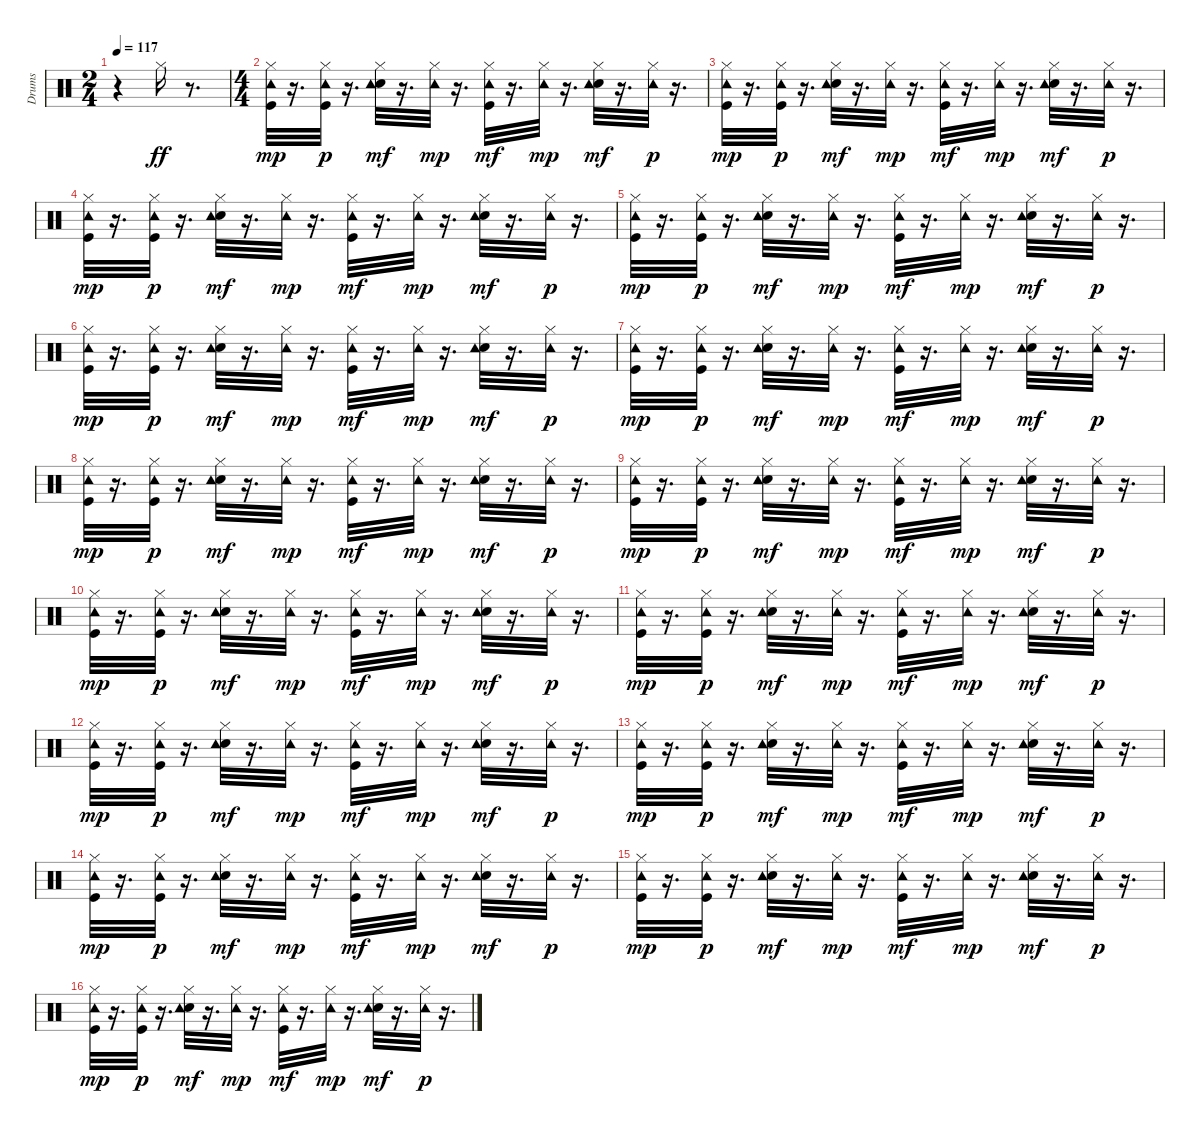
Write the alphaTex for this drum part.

\track ("Drums" "Drums") {instrument percussion}
\staff {score}
\articulation defaults
\ts (2 4)
\tempo 117
\clef neutral
\ks c
r.4{dy ff} "Hi-Hat (closed)".16 r.8{d} |
\ts (4 4)
("Kick (hit)" "Hi-Hat (closed)" "Tambourine (hit)").32{dy mp} r.16{d} ("Kick (hit)" "Hi-Hat (closed)" "Tambourine (hit)").32{dy p} r.16{d} ("Electric Snare (hit)" "Hi-Hat (closed)" "Tambourine (hit)").32{dy mf} r.16{d} ("Hi-Hat (closed)" "Tambourine (hit)").32{dy mp} r.16{d} ("Kick (hit)" "Hi-Hat (closed)" "Tambourine (hit)").32{dy mf} r.16{d} ("Hi-Hat (closed)" "Tambourine (hit)").32{dy mp} r.16{d} ("Electric Snare (hit)" "Hi-Hat (closed)" "Tambourine (hit)").32{dy mf} r.16{d} ("Hi-Hat (closed)" "Tambourine (hit)").32{dy p} r.16{d} |
("Kick (hit)" "Hi-Hat (closed)" "Tambourine (hit)").32{dy mp} r.16{d} ("Kick (hit)" "Hi-Hat (closed)" "Tambourine (hit)").32{dy p} r.16{d} ("Electric Snare (hit)" "Hi-Hat (closed)" "Tambourine (hit)").32{dy mf} r.16{d} ("Hi-Hat (closed)" "Tambourine (hit)").32{dy mp} r.16{d} ("Kick (hit)" "Hi-Hat (closed)" "Tambourine (hit)").32{dy mf} r.16{d} ("Hi-Hat (closed)" "Tambourine (hit)").32{dy mp} r.16{d} ("Electric Snare (hit)" "Hi-Hat (closed)" "Tambourine (hit)").32{dy mf} r.16{d} ("Hi-Hat (closed)" "Tambourine (hit)").32{dy p} r.16{d} |
("Kick (hit)" "Hi-Hat (closed)" "Tambourine (hit)").32{dy mp} r.16{d} ("Kick (hit)" "Hi-Hat (closed)" "Tambourine (hit)").32{dy p} r.16{d} ("Electric Snare (hit)" "Hi-Hat (closed)" "Tambourine (hit)").32{dy mf} r.16{d} ("Hi-Hat (closed)" "Tambourine (hit)").32{dy mp} r.16{d} ("Kick (hit)" "Hi-Hat (closed)" "Tambourine (hit)").32{dy mf} r.16{d} ("Hi-Hat (closed)" "Tambourine (hit)").32{dy mp} r.16{d} ("Electric Snare (hit)" "Hi-Hat (closed)" "Tambourine (hit)").32{dy mf} r.16{d} ("Hi-Hat (closed)" "Tambourine (hit)").32{dy p} r.16{d} |
("Kick (hit)" "Hi-Hat (closed)" "Tambourine (hit)").32{dy mp} r.16{d} ("Kick (hit)" "Hi-Hat (closed)" "Tambourine (hit)").32{dy p} r.16{d} ("Electric Snare (hit)" "Hi-Hat (closed)" "Tambourine (hit)").32{dy mf} r.16{d} ("Hi-Hat (closed)" "Tambourine (hit)").32{dy mp} r.16{d} ("Kick (hit)" "Hi-Hat (closed)" "Tambourine (hit)").32{dy mf} r.16{d} ("Hi-Hat (closed)" "Tambourine (hit)").32{dy mp} r.16{d} ("Electric Snare (hit)" "Hi-Hat (closed)" "Tambourine (hit)").32{dy mf} r.16{d} ("Hi-Hat (closed)" "Tambourine (hit)").32{dy p} r.16{d} |
("Kick (hit)" "Hi-Hat (closed)" "Tambourine (hit)").32{dy mp} r.16{d} ("Kick (hit)" "Hi-Hat (closed)" "Tambourine (hit)").32{dy p} r.16{d} ("Electric Snare (hit)" "Hi-Hat (closed)" "Tambourine (hit)").32{dy mf} r.16{d} ("Hi-Hat (closed)" "Tambourine (hit)").32{dy mp} r.16{d} ("Kick (hit)" "Hi-Hat (closed)" "Tambourine (hit)").32{dy mf} r.16{d} ("Hi-Hat (closed)" "Tambourine (hit)").32{dy mp} r.16{d} ("Electric Snare (hit)" "Hi-Hat (closed)" "Tambourine (hit)").32{dy mf} r.16{d} ("Hi-Hat (closed)" "Tambourine (hit)").32{dy p} r.16{d} |
("Kick (hit)" "Hi-Hat (closed)" "Tambourine (hit)").32{dy mp} r.16{d} ("Kick (hit)" "Hi-Hat (closed)" "Tambourine (hit)").32{dy p} r.16{d} ("Electric Snare (hit)" "Hi-Hat (closed)" "Tambourine (hit)").32{dy mf} r.16{d} ("Hi-Hat (closed)" "Tambourine (hit)").32{dy mp} r.16{d} ("Kick (hit)" "Hi-Hat (closed)" "Tambourine (hit)").32{dy mf} r.16{d} ("Hi-Hat (closed)" "Tambourine (hit)").32{dy mp} r.16{d} ("Electric Snare (hit)" "Hi-Hat (closed)" "Tambourine (hit)").32{dy mf} r.16{d} ("Hi-Hat (closed)" "Tambourine (hit)").32{dy p} r.16{d} |
("Kick (hit)" "Hi-Hat (closed)" "Tambourine (hit)").32{dy mp} r.16{d} ("Kick (hit)" "Hi-Hat (closed)" "Tambourine (hit)").32{dy p} r.16{d} ("Electric Snare (hit)" "Hi-Hat (closed)" "Tambourine (hit)").32{dy mf} r.16{d} ("Hi-Hat (closed)" "Tambourine (hit)").32{dy mp} r.16{d} ("Kick (hit)" "Hi-Hat (closed)" "Tambourine (hit)").32{dy mf} r.16{d} ("Hi-Hat (closed)" "Tambourine (hit)").32{dy mp} r.16{d} ("Electric Snare (hit)" "Hi-Hat (closed)" "Tambourine (hit)").32{dy mf} r.16{d} ("Hi-Hat (closed)" "Tambourine (hit)").32{dy p} r.16{d} |
("Kick (hit)" "Hi-Hat (closed)" "Tambourine (hit)").32{dy mp} r.16{d} ("Kick (hit)" "Hi-Hat (closed)" "Tambourine (hit)").32{dy p} r.16{d} ("Electric Snare (hit)" "Hi-Hat (closed)" "Tambourine (hit)").32{dy mf} r.16{d} ("Hi-Hat (closed)" "Tambourine (hit)").32{dy mp} r.16{d} ("Kick (hit)" "Hi-Hat (closed)" "Tambourine (hit)").32{dy mf} r.16{d} ("Hi-Hat (closed)" "Tambourine (hit)").32{dy mp} r.16{d} ("Electric Snare (hit)" "Hi-Hat (closed)" "Tambourine (hit)").32{dy mf} r.16{d} ("Hi-Hat (closed)" "Tambourine (hit)").32{dy p} r.16{d} |
("Kick (hit)" "Hi-Hat (closed)" "Tambourine (hit)").32{dy mp} r.16{d} ("Kick (hit)" "Hi-Hat (closed)" "Tambourine (hit)").32{dy p} r.16{d} ("Electric Snare (hit)" "Hi-Hat (closed)" "Tambourine (hit)").32{dy mf} r.16{d} ("Hi-Hat (closed)" "Tambourine (hit)").32{dy mp} r.16{d} ("Kick (hit)" "Hi-Hat (closed)" "Tambourine (hit)").32{dy mf} r.16{d} ("Hi-Hat (closed)" "Tambourine (hit)").32{dy mp} r.16{d} ("Electric Snare (hit)" "Hi-Hat (closed)" "Tambourine (hit)").32{dy mf} r.16{d} ("Hi-Hat (closed)" "Tambourine (hit)").32{dy p} r.16{d} |
("Kick (hit)" "Hi-Hat (closed)" "Tambourine (hit)").32{dy mp} r.16{d} ("Kick (hit)" "Hi-Hat (closed)" "Tambourine (hit)").32{dy p} r.16{d} ("Electric Snare (hit)" "Hi-Hat (closed)" "Tambourine (hit)").32{dy mf} r.16{d} ("Hi-Hat (closed)" "Tambourine (hit)").32{dy mp} r.16{d} ("Kick (hit)" "Hi-Hat (closed)" "Tambourine (hit)").32{dy mf} r.16{d} ("Hi-Hat (closed)" "Tambourine (hit)").32{dy mp} r.16{d} ("Electric Snare (hit)" "Hi-Hat (closed)" "Tambourine (hit)").32{dy mf} r.16{d} ("Hi-Hat (closed)" "Tambourine (hit)").32{dy p} r.16{d} |
("Kick (hit)" "Hi-Hat (closed)" "Tambourine (hit)").32{dy mp} r.16{d} ("Kick (hit)" "Hi-Hat (closed)" "Tambourine (hit)").32{dy p} r.16{d} ("Electric Snare (hit)" "Hi-Hat (closed)" "Tambourine (hit)").32{dy mf} r.16{d} ("Hi-Hat (closed)" "Tambourine (hit)").32{dy mp} r.16{d} ("Kick (hit)" "Hi-Hat (closed)" "Tambourine (hit)").32{dy mf} r.16{d} ("Hi-Hat (closed)" "Tambourine (hit)").32{dy mp} r.16{d} ("Electric Snare (hit)" "Hi-Hat (closed)" "Tambourine (hit)").32{dy mf} r.16{d} ("Hi-Hat (closed)" "Tambourine (hit)").32{dy p} r.16{d} |
("Kick (hit)" "Hi-Hat (closed)" "Tambourine (hit)").32{dy mp} r.16{d} ("Kick (hit)" "Hi-Hat (closed)" "Tambourine (hit)").32{dy p} r.16{d} ("Electric Snare (hit)" "Hi-Hat (closed)" "Tambourine (hit)").32{dy mf} r.16{d} ("Hi-Hat (closed)" "Tambourine (hit)").32{dy mp} r.16{d} ("Kick (hit)" "Hi-Hat (closed)" "Tambourine (hit)").32{dy mf} r.16{d} ("Hi-Hat (closed)" "Tambourine (hit)").32{dy mp} r.16{d} ("Electric Snare (hit)" "Hi-Hat (closed)" "Tambourine (hit)").32{dy mf} r.16{d} ("Hi-Hat (closed)" "Tambourine (hit)").32{dy p} r.16{d} |
("Kick (hit)" "Hi-Hat (closed)" "Tambourine (hit)").32{dy mp} r.16{d} ("Kick (hit)" "Hi-Hat (closed)" "Tambourine (hit)").32{dy p} r.16{d} ("Electric Snare (hit)" "Hi-Hat (closed)" "Tambourine (hit)").32{dy mf} r.16{d} ("Hi-Hat (closed)" "Tambourine (hit)").32{dy mp} r.16{d} ("Kick (hit)" "Hi-Hat (closed)" "Tambourine (hit)").32{dy mf} r.16{d} ("Hi-Hat (closed)" "Tambourine (hit)").32{dy mp} r.16{d} ("Electric Snare (hit)" "Hi-Hat (closed)" "Tambourine (hit)").32{dy mf} r.16{d} ("Hi-Hat (closed)" "Tambourine (hit)").32{dy p} r.16{d} |
("Kick (hit)" "Hi-Hat (closed)" "Tambourine (hit)").32{dy mp} r.16{d} ("Kick (hit)" "Hi-Hat (closed)" "Tambourine (hit)").32{dy p} r.16{d} ("Electric Snare (hit)" "Hi-Hat (closed)" "Tambourine (hit)").32{dy mf} r.16{d} ("Hi-Hat (closed)" "Tambourine (hit)").32{dy mp} r.16{d} ("Kick (hit)" "Hi-Hat (closed)" "Tambourine (hit)").32{dy mf} r.16{d} ("Hi-Hat (closed)" "Tambourine (hit)").32{dy mp} r.16{d} ("Electric Snare (hit)" "Hi-Hat (closed)" "Tambourine (hit)").32{dy mf} r.16{d} ("Hi-Hat (closed)" "Tambourine (hit)").32{dy p} r.16{d} |
("Kick (hit)" "Hi-Hat (closed)" "Tambourine (hit)").32{dy mp} r.16{d} ("Kick (hit)" "Hi-Hat (closed)" "Tambourine (hit)").32{dy p} r.16{d} ("Electric Snare (hit)" "Hi-Hat (closed)" "Tambourine (hit)").32{dy mf} r.16{d} ("Hi-Hat (closed)" "Tambourine (hit)").32{dy mp} r.16{d} ("Kick (hit)" "Hi-Hat (closed)" "Tambourine (hit)").32{dy mf} r.16{d} ("Hi-Hat (closed)" "Tambourine (hit)").32{dy mp} r.16{d} ("Electric Snare (hit)" "Hi-Hat (closed)" "Tambourine (hit)").32{dy mf} r.16{d} ("Hi-Hat (closed)" "Tambourine (hit)").32{dy p} r.16{d}
